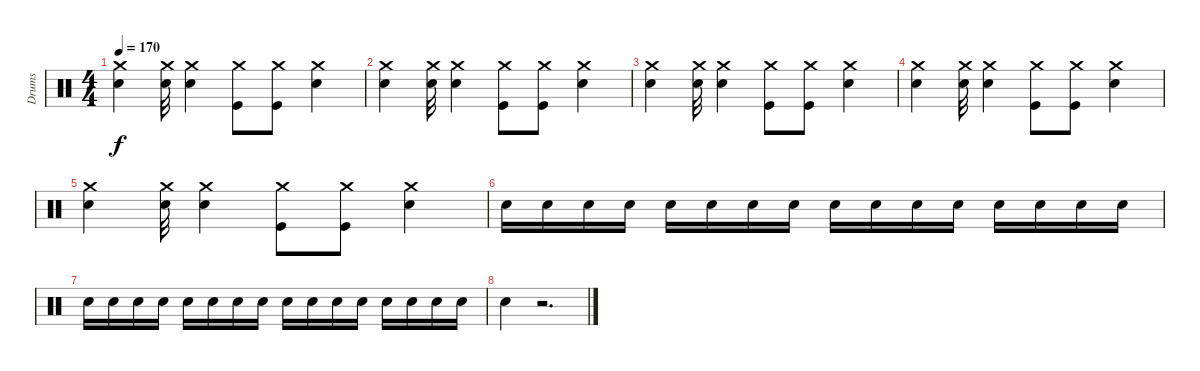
\track ("Drums" "Drums") {instrument percussion}
\staff {score}
\articulation defaults
\ts (4 4)
\tempo 170
\clef neutral
\ks c
("Crash medium (hit)" "Electric Snare (hit)").4{dy f} ("Crash medium (hit)" "Electric Snare (hit)").32 ("Crash medium (hit)" "Electric Snare (hit)").4 ("Crash medium (hit)" "Kick (hit)").8 ("Crash medium (hit)" "Kick (hit)").8 ("Crash medium (hit)" "Electric Snare (hit)").4 |
("Crash medium (hit)" "Electric Snare (hit)").4 ("Crash medium (hit)" "Electric Snare (hit)").32 ("Crash medium (hit)" "Electric Snare (hit)").4 ("Crash medium (hit)" "Kick (hit)").8 ("Crash medium (hit)" "Kick (hit)").8 ("Crash medium (hit)" "Electric Snare (hit)").4 |
("Crash medium (hit)" "Electric Snare (hit)").4 ("Crash medium (hit)" "Electric Snare (hit)").32 ("Crash medium (hit)" "Electric Snare (hit)").4 ("Crash medium (hit)" "Kick (hit)").8 ("Crash medium (hit)" "Kick (hit)").8 ("Crash medium (hit)" "Electric Snare (hit)").4 |
("Crash medium (hit)" "Electric Snare (hit)").4 ("Crash medium (hit)" "Electric Snare (hit)").32 ("Crash medium (hit)" "Electric Snare (hit)").4 ("Crash medium (hit)" "Kick (hit)").8 ("Crash medium (hit)" "Kick (hit)").8 ("Crash medium (hit)" "Electric Snare (hit)").4 |
("Crash medium (hit)" "Electric Snare (hit)").4 ("Crash medium (hit)" "Electric Snare (hit)").32 ("Crash medium (hit)" "Electric Snare (hit)").4 ("Crash medium (hit)" "Kick (hit)").8 ("Crash medium (hit)" "Kick (hit)").8 ("Crash medium (hit)" "Electric Snare (hit)").4 |
"Electric Snare (hit)".16 "Electric Snare (hit)".16 "Electric Snare (hit)".16 "Electric Snare (hit)".16 "Electric Snare (hit)".16 "Electric Snare (hit)".16 "Electric Snare (hit)".16 "Electric Snare (hit)".16 "Electric Snare (hit)".16 "Electric Snare (hit)".16 "Electric Snare (hit)".16 "Electric Snare (hit)".16 "Electric Snare (hit)".16 "Electric Snare (hit)".16 "Electric Snare (hit)".16 "Electric Snare (hit)".16 |
"Electric Snare (hit)".16 "Electric Snare (hit)".16 "Electric Snare (hit)".16 "Electric Snare (hit)".16 "Electric Snare (hit)".16 "Electric Snare (hit)".16 "Electric Snare (hit)".16 "Electric Snare (hit)".16 "Electric Snare (hit)".16 "Electric Snare (hit)".16 "Electric Snare (hit)".16 "Electric Snare (hit)".16 "Electric Snare (hit)".16 "Electric Snare (hit)".16 "Electric Snare (hit)".16 "Electric Snare (hit)".16 |
"Electric Snare (hit)".4 r.2{d}
